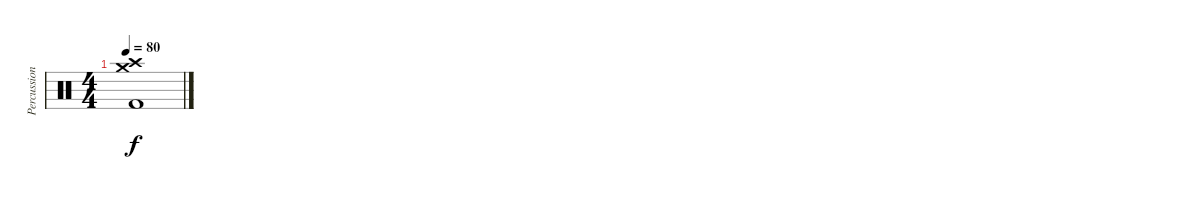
\track ("Percussion" "Percussion") {instrument percussion}
\staff {score}
\articulation defaults
\ts (4 4)
\tempo 80
\clef neutral
\ks c
("Crash medium (hit)" "Crash high (hit)" "Kick (hit) 2").1{dy f}
